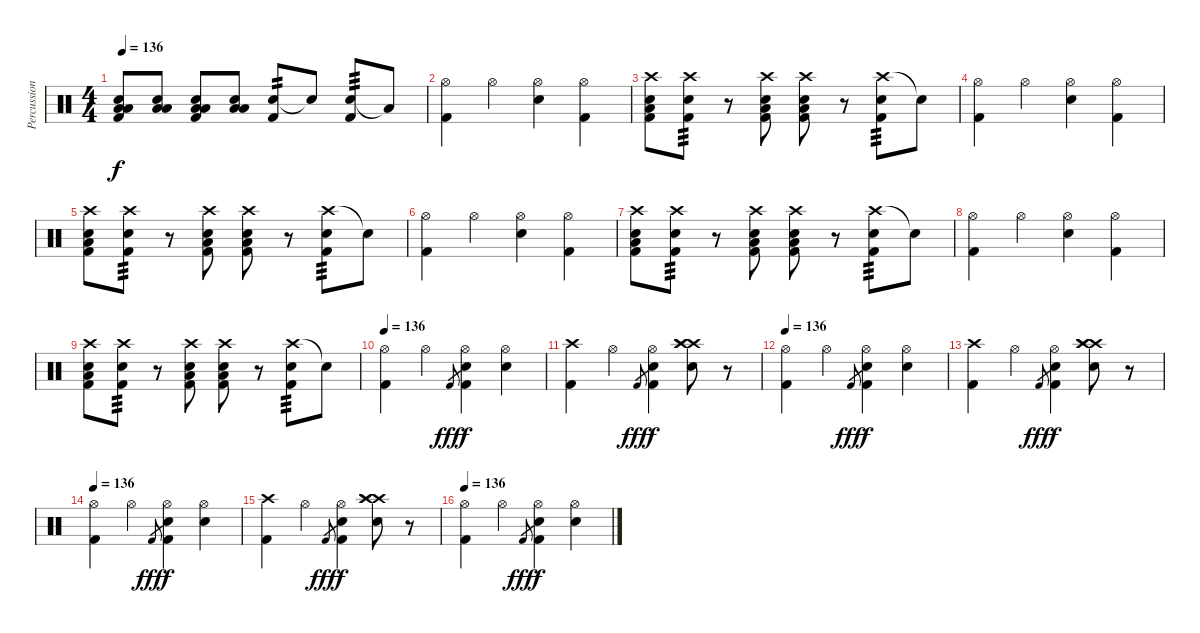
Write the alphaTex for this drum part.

\track ("Percussioni" "Percussion") {instrument percussion}
\staff {score}
\articulation defaults
\ts (4 4)
\tempo 136
\clef neutral
\ks c
("Low Floor Tom (hit)" "Low Floor Tom (hit)" "Snare (hit) 2" "Kick (hit) 2").8{dy f} ("Low Floor Tom (hit)" "Snare (hit) 2" "Low Floor Tom (hit)").8 ("Low Floor Tom (hit)" "Low Floor Tom (hit)" "Snare (hit) 2" "Kick (hit) 2").8 ("Low Floor Tom (hit)" "Snare (hit) 2" "Low Floor Tom (hit)").8 ("Snare (hit) 2" "Kick (hit) 2").8{tp 2} "Snare (hit) 2"{t}.8 ("Snare (hit) 2" "Kick (hit) 2").8{tp 3} "Low Floor Tom (hit)"{t}.8 |
("Hi-Hat (open)" "Kick (hit) 2").4 "Hi-Hat (open)".4 ("Hi-Hat (open)" "Snare (hit) 2").4 ("Hi-Hat (open)" "Kick (hit) 2").4 |
("Crash high (hit)" "Low Floor Tom (hit)" "Snare (hit) 2" "Kick (hit) 2").8 ("Crash high (hit)" "Snare (hit) 2" "Kick (hit) 2").8{tp 3} r.8 ("Crash high (hit)" "Low Floor Tom (hit)" "Snare (hit) 2" "Kick (hit) 2").8 ("Crash high (hit)" "Low Floor Tom (hit)" "Snare (hit) 2" "Kick (hit) 2").8 r.8 ("Crash high (hit)" "Snare (hit) 2" "Kick (hit) 2").8{tp 3} "Snare (hit)"{t}.8 |
("Hi-Hat (open)" "Kick (hit) 2").4 "Hi-Hat (open)".4 ("Hi-Hat (open)" "Snare (hit) 2").4 ("Hi-Hat (open)" "Kick (hit) 2").4 |
("Crash high (hit)" "Low Floor Tom (hit)" "Snare (hit) 2" "Kick (hit) 2").8 ("Crash high (hit)" "Snare (hit) 2" "Kick (hit) 2").8{tp 3} r.8 ("Crash high (hit)" "Low Floor Tom (hit)" "Snare (hit) 2" "Kick (hit) 2").8 ("Crash high (hit)" "Low Floor Tom (hit)" "Snare (hit) 2" "Kick (hit) 2").8 r.8 ("Crash high (hit)" "Snare (hit) 2" "Kick (hit) 2").8{tp 3} "Snare (hit)"{t}.8 |
("Hi-Hat (open)" "Kick (hit) 2").4 "Hi-Hat (open)".4 ("Hi-Hat (open)" "Snare (hit) 2").4 ("Hi-Hat (open)" "Kick (hit) 2").4 |
("Crash high (hit)" "Low Floor Tom (hit)" "Snare (hit) 2" "Kick (hit) 2").8 ("Crash high (hit)" "Snare (hit) 2" "Kick (hit) 2").8{tp 3} r.8 ("Crash high (hit)" "Low Floor Tom (hit)" "Snare (hit) 2" "Kick (hit) 2").8 ("Crash high (hit)" "Low Floor Tom (hit)" "Snare (hit) 2" "Kick (hit) 2").8 r.8 ("Crash high (hit)" "Snare (hit) 2" "Kick (hit) 2").8{tp 3} "Snare (hit)"{t}.8 |
("Hi-Hat (open)" "Kick (hit) 2").4 "Hi-Hat (open)".4 ("Hi-Hat (open)" "Snare (hit) 2").4 ("Hi-Hat (open)" "Kick (hit) 2").4 |
("Crash high (hit)" "Low Floor Tom (hit)" "Snare (hit) 2" "Kick (hit) 2").8 ("Crash high (hit)" "Snare (hit) 2" "Kick (hit) 2").8{tp 3} r.8 ("Crash high (hit)" "Low Floor Tom (hit)" "Snare (hit) 2" "Kick (hit) 2").8 ("Crash high (hit)" "Low Floor Tom (hit)" "Snare (hit) 2" "Kick (hit) 2").8 r.8 ("Crash high (hit)" "Snare (hit) 2" "Kick (hit) 2").8{tp 3} "Snare (hit)"{t}.8 |
\tempo 136
("Hi-Hat (open)" "Kick (hit) 2").4 "Hi-Hat (open)".4 "Kick (hit) 2"{sl}.8{gr dy fff} ("Hi-Hat (open)" "Snare (hit) 2" "Kick (hit) 2").4{dy f} ("Hi-Hat (open)" "Snare (hit) 2").4 |
("Crash high (hit)" "Kick (hit) 2").4 "Hi-Hat (open)".4 "Kick (hit) 2"{sl}.8{gr dy fff} ("Hi-Hat (open)" "Snare (hit) 2" "Kick (hit) 2").4{dy f} ("Crash high (hit)" "Crash high (hit)" "Crash high (hit)" "Snare (hit) 2").8 r.8 |
\tempo 136
("Hi-Hat (open)" "Kick (hit) 2").4 "Hi-Hat (open)".4 "Kick (hit) 2"{sl}.8{gr dy fff} ("Hi-Hat (open)" "Snare (hit) 2" "Kick (hit) 2").4{dy f} ("Hi-Hat (open)" "Snare (hit) 2").4 |
("Crash high (hit)" "Kick (hit) 2").4 "Hi-Hat (open)".4 "Kick (hit) 2"{sl}.8{gr dy fff} ("Hi-Hat (open)" "Snare (hit) 2" "Kick (hit) 2").4{dy f} ("Crash high (hit)" "Crash high (hit)" "Crash high (hit)" "Snare (hit) 2").8 r.8 |
\tempo 136
("Hi-Hat (open)" "Kick (hit) 2").4 "Hi-Hat (open)".4 "Kick (hit) 2"{sl}.8{gr dy fff} ("Hi-Hat (open)" "Snare (hit) 2" "Kick (hit) 2").4{dy f} ("Hi-Hat (open)" "Snare (hit) 2").4 |
("Crash high (hit)" "Kick (hit) 2").4 "Hi-Hat (open)".4 "Kick (hit) 2"{sl}.8{gr dy fff} ("Hi-Hat (open)" "Snare (hit) 2" "Kick (hit) 2").4{dy f} ("Crash high (hit)" "Crash high (hit)" "Crash high (hit)" "Snare (hit) 2").8 r.8 |
\tempo 136
("Hi-Hat (open)" "Kick (hit) 2").4 "Hi-Hat (open)".4 "Kick (hit) 2"{sl}.8{gr dy fff} ("Hi-Hat (open)" "Snare (hit) 2" "Kick (hit) 2").4{dy f} ("Hi-Hat (open)" "Snare (hit) 2").4
